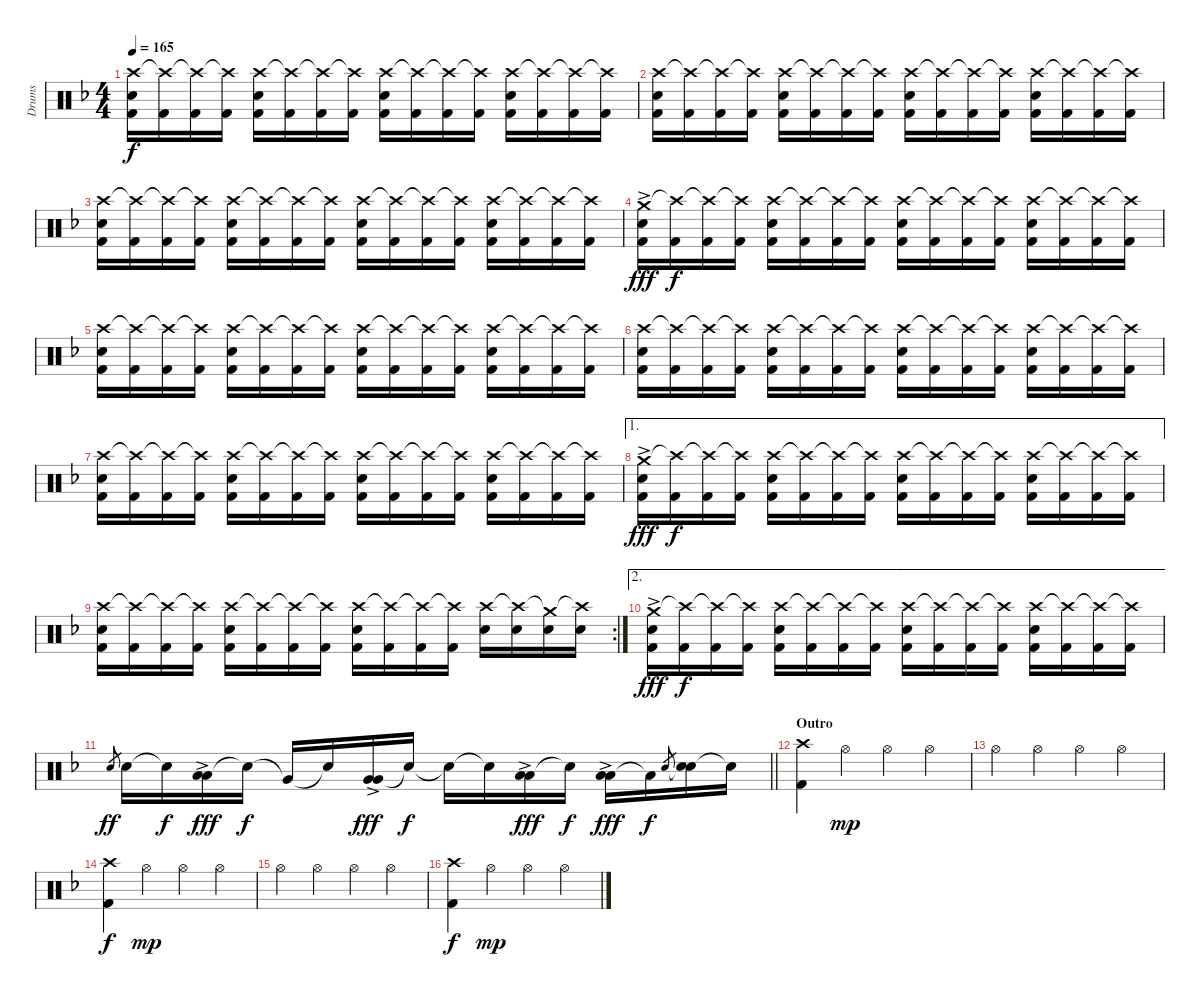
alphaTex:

\track ("Drums" "Drums") {instrument percussion}
\staff {score}
\articulation defaults
\ts (4 4)
\tempo 165
\clef neutral
\ks f
("Crash high (hit)" "Snare (hit) 2" "Kick (hit) 2").16{dy f} ("Crash high (hit)"{t} "Kick (hit) 2").16 ("Crash high (hit)"{t} "Kick (hit) 2").16 ("Crash high (hit)"{t} "Kick (hit) 2").16 ("Crash high (hit)" "Snare (hit) 2" "Kick (hit) 2").16 ("Crash high (hit)"{t} "Kick (hit) 2").16 ("Crash high (hit)"{t} "Kick (hit) 2").16 ("Crash high (hit)"{t} "Kick (hit) 2").16 ("Crash high (hit)" "Snare (hit) 2" "Kick (hit) 2").16 ("Crash high (hit)"{t} "Kick (hit) 2").16 ("Crash high (hit)"{t} "Kick (hit) 2").16 ("Crash high (hit)"{t} "Kick (hit) 2").16 ("Crash high (hit)" "Snare (hit) 2" "Kick (hit) 2").16 ("Crash high (hit)"{t} "Kick (hit) 2").16 ("Crash high (hit)"{t} "Kick (hit) 2").16 ("Crash high (hit)"{t} "Kick (hit) 2").16 |
("Crash high (hit)" "Snare (hit) 2" "Kick (hit) 2").16 ("Crash high (hit)"{t} "Kick (hit) 2").16 ("Crash high (hit)"{t} "Kick (hit) 2").16 ("Crash high (hit)"{t} "Kick (hit) 2").16 ("Crash high (hit)" "Snare (hit) 2" "Kick (hit) 2").16 ("Crash high (hit)"{t} "Kick (hit) 2").16 ("Crash high (hit)"{t} "Kick (hit) 2").16 ("Crash high (hit)"{t} "Kick (hit) 2").16 ("Crash high (hit)" "Snare (hit) 2" "Kick (hit) 2").16 ("Crash high (hit)"{t} "Kick (hit) 2").16 ("Crash high (hit)"{t} "Kick (hit) 2").16 ("Crash high (hit)"{t} "Kick (hit) 2").16 ("Crash high (hit)" "Snare (hit) 2" "Kick (hit) 2").16 ("Crash high (hit)"{t} "Kick (hit) 2").16 ("Crash high (hit)"{t} "Kick (hit) 2").16 ("Crash high (hit)"{t} "Kick (hit) 2").16 |
("Crash high (hit)" "Snare (hit) 2" "Kick (hit) 2").16 ("Crash high (hit)"{t} "Kick (hit) 2").16 ("Crash high (hit)"{t} "Kick (hit) 2").16 ("Crash high (hit)"{t} "Kick (hit) 2").16 ("Crash high (hit)" "Snare (hit) 2" "Kick (hit) 2").16 ("Crash high (hit)"{t} "Kick (hit) 2").16 ("Crash high (hit)"{t} "Kick (hit) 2").16 ("Crash high (hit)"{t} "Kick (hit) 2").16 ("Crash high (hit)" "Snare (hit) 2" "Kick (hit) 2").16 ("Crash high (hit)"{t} "Kick (hit) 2").16 ("Crash high (hit)"{t} "Kick (hit) 2").16 ("Crash high (hit)"{t} "Kick (hit) 2").16 ("Crash high (hit)" "Snare (hit) 2" "Kick (hit) 2").16 ("Crash high (hit)"{t} "Kick (hit) 2").16 ("Crash high (hit)"{t} "Kick (hit) 2").16 ("Crash high (hit)"{t} "Kick (hit) 2").16 |
("Crash medium (hit)"{ac} "Snare (hit) 2" "Kick (hit) 2").16{dy fff} ("Crash high (hit)"{t} "Kick (hit) 2").16{dy f} ("Crash high (hit)"{t} "Kick (hit) 2").16 ("Crash high (hit)"{t} "Kick (hit) 2").16 ("Crash high (hit)" "Snare (hit) 2" "Kick (hit) 2").16 ("Crash high (hit)"{t} "Kick (hit) 2").16 ("Crash high (hit)"{t} "Kick (hit) 2").16 ("Crash high (hit)"{t} "Kick (hit) 2").16 ("Crash high (hit)" "Snare (hit) 2" "Kick (hit) 2").16 ("Crash high (hit)"{t} "Kick (hit) 2").16 ("Crash high (hit)"{t} "Kick (hit) 2").16 ("Crash high (hit)"{t} "Kick (hit) 2").16 ("Crash high (hit)" "Snare (hit) 2" "Kick (hit) 2").16 ("Crash high (hit)"{t} "Kick (hit) 2").16 ("Crash high (hit)"{t} "Kick (hit) 2").16 ("Crash high (hit)"{t} "Kick (hit) 2").16 |
("Crash high (hit)" "Snare (hit) 2" "Kick (hit) 2").16 ("Crash high (hit)"{t} "Kick (hit) 2").16 ("Crash high (hit)"{t} "Kick (hit) 2").16 ("Crash high (hit)"{t} "Kick (hit) 2").16 ("Crash high (hit)" "Snare (hit) 2" "Kick (hit) 2").16 ("Crash high (hit)"{t} "Kick (hit) 2").16 ("Crash high (hit)"{t} "Kick (hit) 2").16 ("Crash high (hit)"{t} "Kick (hit) 2").16 ("Crash high (hit)" "Snare (hit) 2" "Kick (hit) 2").16 ("Crash high (hit)"{t} "Kick (hit) 2").16 ("Crash high (hit)"{t} "Kick (hit) 2").16 ("Crash high (hit)"{t} "Kick (hit) 2").16 ("Crash high (hit)" "Snare (hit) 2" "Kick (hit) 2").16 ("Crash high (hit)"{t} "Kick (hit) 2").16 ("Crash high (hit)"{t} "Kick (hit) 2").16 ("Crash high (hit)"{t} "Kick (hit) 2").16 |
("Crash high (hit)" "Snare (hit) 2" "Kick (hit) 2").16 ("Crash high (hit)"{t} "Kick (hit) 2").16 ("Crash high (hit)"{t} "Kick (hit) 2").16 ("Crash high (hit)"{t} "Kick (hit) 2").16 ("Crash high (hit)" "Snare (hit) 2" "Kick (hit) 2").16 ("Crash high (hit)"{t} "Kick (hit) 2").16 ("Crash high (hit)"{t} "Kick (hit) 2").16 ("Crash high (hit)"{t} "Kick (hit) 2").16 ("Crash high (hit)" "Snare (hit) 2" "Kick (hit) 2").16 ("Crash high (hit)"{t} "Kick (hit) 2").16 ("Crash high (hit)"{t} "Kick (hit) 2").16 ("Crash high (hit)"{t} "Kick (hit) 2").16 ("Crash high (hit)" "Snare (hit) 2" "Kick (hit) 2").16 ("Crash high (hit)"{t} "Kick (hit) 2").16 ("Crash high (hit)"{t} "Kick (hit) 2").16 ("Crash high (hit)"{t} "Kick (hit) 2").16 |
("Crash high (hit)" "Snare (hit) 2" "Kick (hit) 2").16 ("Crash high (hit)"{t} "Kick (hit) 2").16 ("Crash high (hit)"{t} "Kick (hit) 2").16 ("Crash high (hit)"{t} "Kick (hit) 2").16 ("Crash high (hit)" "Snare (hit) 2" "Kick (hit) 2").16 ("Crash high (hit)"{t} "Kick (hit) 2").16 ("Crash high (hit)"{t} "Kick (hit) 2").16 ("Crash high (hit)"{t} "Kick (hit) 2").16 ("Crash high (hit)" "Snare (hit) 2" "Kick (hit) 2").16 ("Crash high (hit)"{t} "Kick (hit) 2").16 ("Crash high (hit)"{t} "Kick (hit) 2").16 ("Crash high (hit)"{t} "Kick (hit) 2").16 ("Crash high (hit)" "Snare (hit) 2" "Kick (hit) 2").16 ("Crash high (hit)"{t} "Kick (hit) 2").16 ("Crash high (hit)"{t} "Kick (hit) 2").16 ("Crash high (hit)"{t} "Kick (hit) 2").16 |
\ae 1
("Crash medium (hit)"{ac} "Snare (hit) 2" "Kick (hit) 2").16{dy fff} ("Crash high (hit)"{t} "Kick (hit) 2").16{dy f} ("Crash high (hit)"{t} "Kick (hit) 2").16 ("Crash high (hit)"{t} "Kick (hit) 2").16 ("Crash high (hit)" "Snare (hit) 2" "Kick (hit) 2").16 ("Crash high (hit)"{t} "Kick (hit) 2").16 ("Crash high (hit)"{t} "Kick (hit) 2").16 ("Crash high (hit)"{t} "Kick (hit) 2").16 ("Crash high (hit)" "Snare (hit) 2" "Kick (hit) 2").16 ("Crash high (hit)"{t} "Kick (hit) 2").16 ("Crash high (hit)"{t} "Kick (hit) 2").16 ("Crash high (hit)"{t} "Kick (hit) 2").16 ("Crash high (hit)" "Snare (hit) 2" "Kick (hit) 2").16 ("Crash high (hit)"{t} "Kick (hit) 2").16 ("Crash high (hit)"{t} "Kick (hit) 2").16 ("Crash high (hit)"{t} "Kick (hit) 2").16 |
\rc 2
("Crash high (hit)" "Snare (hit) 2" "Kick (hit) 2").16 ("Crash high (hit)"{t} "Kick (hit) 2").16 ("Crash high (hit)"{t} "Kick (hit) 2").16 ("Crash high (hit)"{t} "Kick (hit) 2").16 ("Crash high (hit)" "Snare (hit) 2" "Kick (hit) 2").16 ("Crash high (hit)"{t} "Kick (hit) 2").16 ("Crash high (hit)"{t} "Kick (hit) 2").16 ("Crash high (hit)"{t} "Kick (hit) 2").16 ("Crash high (hit)" "Snare (hit) 2" "Kick (hit) 2").16 ("Crash high (hit)"{t} "Kick (hit) 2").16 ("Crash high (hit)"{t} "Kick (hit) 2").16 ("Crash high (hit)"{t} "Kick (hit) 2").16 ("Crash high (hit)" "Snare (hit) 2").16 ("Crash high (hit)"{t} "Snare (hit) 2").16 ("Crash medium (hit)"{t} "Snare (hit) 2").16 ("Crash high (hit)"{t} "Snare (hit) 2").16 |
\ae 2
("Crash medium (hit)"{ac} "Snare (hit) 2" "Kick (hit) 2").16{dy fff} ("Crash high (hit)"{t} "Kick (hit) 2").16{dy f} ("Crash high (hit)"{t} "Kick (hit) 2").16 ("Crash high (hit)"{t} "Kick (hit) 2").16 ("Crash high (hit)" "Snare (hit) 2" "Kick (hit) 2").16 ("Crash high (hit)"{t} "Kick (hit) 2").16 ("Crash high (hit)"{t} "Kick (hit) 2").16 ("Crash high (hit)"{t} "Kick (hit) 2").16 ("Crash high (hit)" "Snare (hit) 2" "Kick (hit) 2").16 ("Crash high (hit)"{t} "Kick (hit) 2").16 ("Crash high (hit)"{t} "Kick (hit) 2").16 ("Crash high (hit)"{t} "Kick (hit) 2").16 ("Crash high (hit)" "Snare (hit) 2" "Kick (hit) 2").16 ("Crash high (hit)"{t} "Kick (hit) 2").16 ("Crash high (hit)"{t} "Kick (hit) 2").16 ("Crash high (hit)"{t} "Kick (hit) 2").16 |
\barLineRight lightlight "Snare (hit) 2".8{gr dy ff} "Snare (hit) 2".16 "Snare (hit) 2"{t}.16{dy f}
("Low Tom (hit)" "Low Tom (hit)"{ac}).16{dy fff} "Snare (hit)"{t}.16{dy f} "Very Low Tom (hit)"{t}.16 "Snare (hit)"{t}.16 ("Very Low Tom (hit)" "Very Low Tom (hit)"{ac}).16{dy fff} "Snare (hit)"{t}.16{dy f} "Snare (hit)"{t}.16 "Snare (hit)"{t}.16 ("Low Floor Tom (hit)" "Low Floor Tom (hit)"{ac}).16{dy fff} "Snare (hit)"{t}.16{dy f} ("Low Floor Tom (hit)" "Low Floor Tom (hit)"{ac}).16{dy fff} "Low Floor Tom (hit)"{t}.16{dy f} "Snare (hit) 2".8{gr} ("Snare (hit)"{t} "Snare (hit) 2").16 "Snare (hit)"{t}.16 |
\section ("" "Outro")
("Crash high (hit)" "Kick (hit) 2").4 "Hi-Hat (open)".4{dy mp} "Hi-Hat (open)".4 "Hi-Hat (open)".4 |
"Hi-Hat (open)".4 "Hi-Hat (open)".4 "Hi-Hat (open)".4 "Hi-Hat (open)".4 |
("Crash high (hit)" "Kick (hit) 2").4{dy f} "Hi-Hat (open)".4{dy mp} "Hi-Hat (open)".4 "Hi-Hat (open)".4 |
"Hi-Hat (open)".4 "Hi-Hat (open)".4 "Hi-Hat (open)".4 "Hi-Hat (open)".4 |
("Crash high (hit)" "Kick (hit) 2").4{dy f} "Hi-Hat (open)".4{dy mp} "Hi-Hat (open)".4 "Hi-Hat (open)".4
